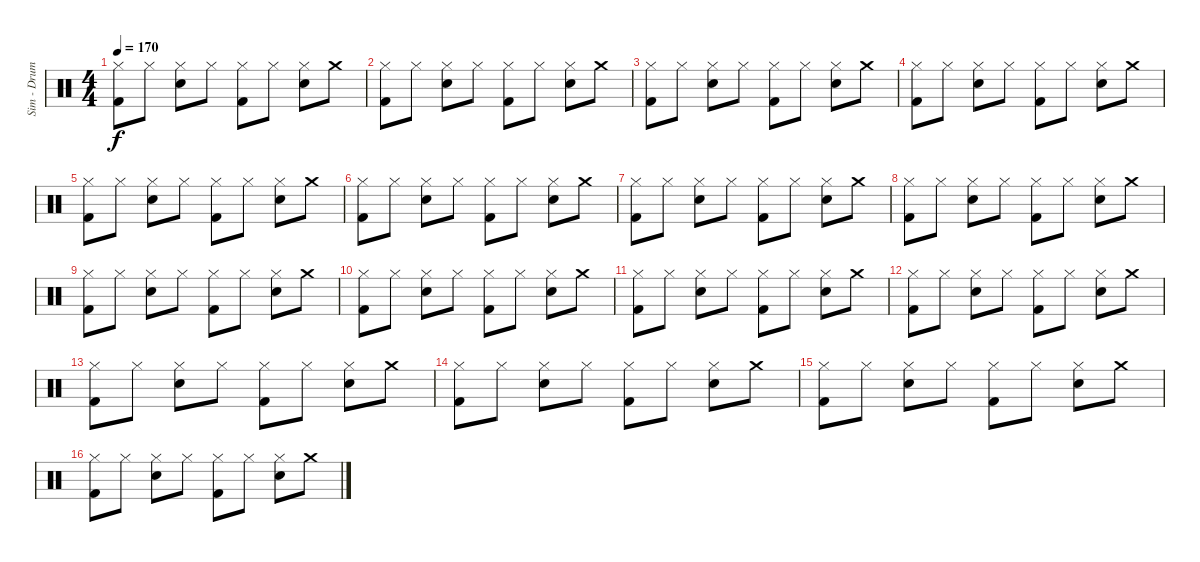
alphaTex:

\track ("Sim - Drums" "Sim - Drum") {instrument percussion}
\staff {score}
\articulation defaults
\ts (4 4)
\tempo 170
\clef neutral
\ks c
("Hi-Hat (closed)" "Kick (hit) 2").8{dy f} "Hi-Hat (closed)".8 ("Hi-Hat (closed)" "Snare (hit) 2").8 "Hi-Hat (closed)".8 ("Hi-Hat (closed)" "Kick (hit) 2").8 "Hi-Hat (closed)".8 ("Hi-Hat (closed)" "Snare (hit) 2").8 "Crash medium (hit)".8 |
("Hi-Hat (closed)" "Kick (hit) 2").8 "Hi-Hat (closed)".8 ("Hi-Hat (closed)" "Snare (hit) 2").8 "Hi-Hat (closed)".8 ("Hi-Hat (closed)" "Kick (hit) 2").8 "Hi-Hat (closed)".8 ("Hi-Hat (closed)" "Snare (hit) 2").8 "Crash medium (hit)".8 |
("Hi-Hat (closed)" "Kick (hit) 2").8 "Hi-Hat (closed)".8 ("Hi-Hat (closed)" "Snare (hit) 2").8 "Hi-Hat (closed)".8 ("Hi-Hat (closed)" "Kick (hit) 2").8 "Hi-Hat (closed)".8 ("Hi-Hat (closed)" "Snare (hit) 2").8 "Crash medium (hit)".8 |
("Hi-Hat (closed)" "Kick (hit) 2").8 "Hi-Hat (closed)".8 ("Hi-Hat (closed)" "Snare (hit) 2").8 "Hi-Hat (closed)".8 ("Hi-Hat (closed)" "Kick (hit) 2").8 "Hi-Hat (closed)".8 ("Hi-Hat (closed)" "Snare (hit) 2").8 "Crash medium (hit)".8 |
("Hi-Hat (closed)" "Kick (hit) 2").8 "Hi-Hat (closed)".8 ("Hi-Hat (closed)" "Snare (hit) 2").8 "Hi-Hat (closed)".8 ("Hi-Hat (closed)" "Kick (hit) 2").8 "Hi-Hat (closed)".8 ("Hi-Hat (closed)" "Snare (hit) 2").8 "Crash medium (hit)".8 |
("Hi-Hat (closed)" "Kick (hit) 2").8 "Hi-Hat (closed)".8 ("Hi-Hat (closed)" "Snare (hit) 2").8 "Hi-Hat (closed)".8 ("Hi-Hat (closed)" "Kick (hit) 2").8 "Hi-Hat (closed)".8 ("Hi-Hat (closed)" "Snare (hit) 2").8 "Crash medium (hit)".8 |
("Hi-Hat (closed)" "Kick (hit) 2").8 "Hi-Hat (closed)".8 ("Hi-Hat (closed)" "Snare (hit) 2").8 "Hi-Hat (closed)".8 ("Hi-Hat (closed)" "Kick (hit) 2").8 "Hi-Hat (closed)".8 ("Hi-Hat (closed)" "Snare (hit) 2").8 "Crash medium (hit)".8 |
("Hi-Hat (closed)" "Kick (hit) 2").8 "Hi-Hat (closed)".8 ("Hi-Hat (closed)" "Snare (hit) 2").8 "Hi-Hat (closed)".8 ("Hi-Hat (closed)" "Kick (hit) 2").8 "Hi-Hat (closed)".8 ("Hi-Hat (closed)" "Snare (hit) 2").8 "Crash medium (hit)".8 |
("Hi-Hat (closed)" "Kick (hit) 2").8 "Hi-Hat (closed)".8 ("Hi-Hat (closed)" "Snare (hit) 2").8 "Hi-Hat (closed)".8 ("Hi-Hat (closed)" "Kick (hit) 2").8 "Hi-Hat (closed)".8 ("Hi-Hat (closed)" "Snare (hit) 2").8 "Crash medium (hit)".8 |
("Hi-Hat (closed)" "Kick (hit) 2").8 "Hi-Hat (closed)".8 ("Hi-Hat (closed)" "Snare (hit) 2").8 "Hi-Hat (closed)".8 ("Hi-Hat (closed)" "Kick (hit) 2").8 "Hi-Hat (closed)".8 ("Hi-Hat (closed)" "Snare (hit) 2").8 "Crash medium (hit)".8 |
("Hi-Hat (closed)" "Kick (hit) 2").8 "Hi-Hat (closed)".8 ("Hi-Hat (closed)" "Snare (hit) 2").8 "Hi-Hat (closed)".8 ("Hi-Hat (closed)" "Kick (hit) 2").8 "Hi-Hat (closed)".8 ("Hi-Hat (closed)" "Snare (hit) 2").8 "Crash medium (hit)".8 |
("Hi-Hat (closed)" "Kick (hit) 2").8 "Hi-Hat (closed)".8 ("Hi-Hat (closed)" "Snare (hit) 2").8 "Hi-Hat (closed)".8 ("Hi-Hat (closed)" "Kick (hit) 2").8 "Hi-Hat (closed)".8 ("Hi-Hat (closed)" "Snare (hit) 2").8 "Crash medium (hit)".8 |
("Hi-Hat (closed)" "Kick (hit) 2").8 "Hi-Hat (closed)".8 ("Hi-Hat (closed)" "Snare (hit) 2").8 "Hi-Hat (closed)".8 ("Hi-Hat (closed)" "Kick (hit) 2").8 "Hi-Hat (closed)".8 ("Hi-Hat (closed)" "Snare (hit) 2").8 "Crash medium (hit)".8 |
("Hi-Hat (closed)" "Kick (hit) 2").8 "Hi-Hat (closed)".8 ("Hi-Hat (closed)" "Snare (hit) 2").8 "Hi-Hat (closed)".8 ("Hi-Hat (closed)" "Kick (hit) 2").8 "Hi-Hat (closed)".8 ("Hi-Hat (closed)" "Snare (hit) 2").8 "Crash medium (hit)".8 |
("Hi-Hat (closed)" "Kick (hit) 2").8 "Hi-Hat (closed)".8 ("Hi-Hat (closed)" "Snare (hit) 2").8 "Hi-Hat (closed)".8 ("Hi-Hat (closed)" "Kick (hit) 2").8 "Hi-Hat (closed)".8 ("Hi-Hat (closed)" "Snare (hit) 2").8 "Crash medium (hit)".8 |
("Hi-Hat (closed)" "Kick (hit) 2").8 "Hi-Hat (closed)".8 ("Hi-Hat (closed)" "Snare (hit) 2").8 "Hi-Hat (closed)".8 ("Hi-Hat (closed)" "Kick (hit) 2").8 "Hi-Hat (closed)".8 ("Hi-Hat (closed)" "Snare (hit) 2").8 "Crash medium (hit)".8
